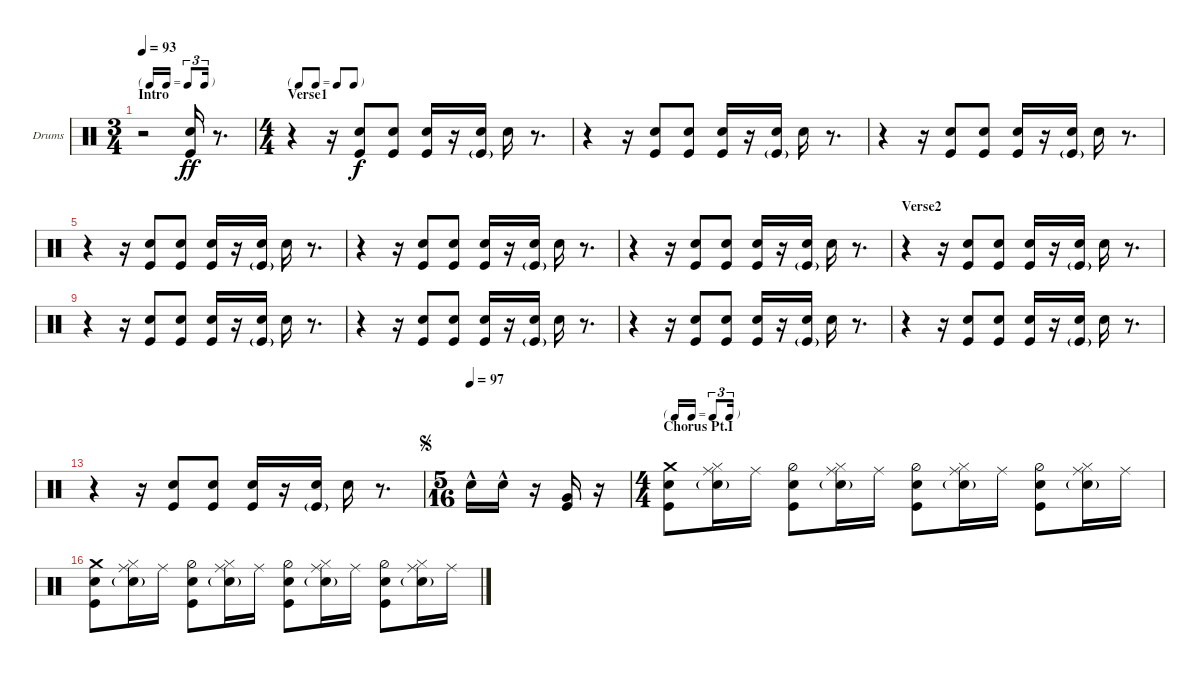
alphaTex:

\defaultSystemsLayout 4
\bracketExtendMode nobrackets
\firstSystemTrackNameOrientation horizontal
\otherSystemsTrackNameOrientation horizontal
\defaultBarNumberDisplay FirstOfSystem
\track ("Drums" "Drums") {instrument percussion}
\staff {score}
\articulation defaults
\ts (3 4)
\tf triplet16th
\section ("" "Intro")
\tempo 93
\clef neutral
\scale
0.425
\ks c
r.2{dy ff} ("Snare (hit) 2" "Kick (hit)").16 r.8{d} |
\ts (4 4)
\tf none
\section ("" "Verse1")
\scale
0.3375 r.4 r.16 ("Snare (hit) 2" "Kick (hit)").8{dy f} ("Snare (hit) 2" "Kick (hit)").8 ("Kick (hit)" "Snare (hit) 2").16 r.16 ("Snare (hit) 2" "Kick (hit)"{g}).16 "Snare (hit) 2".16 r.8{d} |
\scale
0.2375 r.4 r.16 ("Snare (hit) 2" "Kick (hit)").8 ("Snare (hit) 2" "Kick (hit)").8 ("Kick (hit)" "Snare (hit) 2").16 r.16 ("Kick (hit)"{g} "Snare (hit) 2").16 "Snare (hit) 2".16 r.8{d} |
\scale
0.333333 r.4 r.16 ("Snare (hit) 2" "Kick (hit)").8 ("Snare (hit) 2" "Kick (hit)").8 ("Kick (hit)" "Snare (hit) 2").16 r.16 ("Snare (hit) 2" "Kick (hit)"{g}).16 "Snare (hit) 2".16 r.8{d} |
\scale
0.333333 r.4 r.16 ("Snare (hit) 2" "Kick (hit)").8 ("Snare (hit) 2" "Kick (hit)").8 ("Kick (hit)" "Snare (hit) 2").16 r.16 ("Snare (hit) 2" "Kick (hit)"{g}).16 "Snare (hit) 2".16 r.8{d} |
\scale
0.333333 r.4 r.16 ("Snare (hit) 2" "Kick (hit)").8 ("Snare (hit) 2" "Kick (hit)").8 ("Kick (hit)" "Snare (hit) 2").16 r.16 ("Snare (hit) 2" "Kick (hit)"{g}).16 "Snare (hit) 2".16 r.8{d} |
\scale
0.333333 r.4 r.16 ("Snare (hit) 2" "Kick (hit)").8 ("Snare (hit) 2" "Kick (hit)").8 ("Kick (hit)" "Snare (hit) 2").16 r.16 ("Snare (hit) 2" "Kick (hit)"{g}).16 "Snare (hit) 2".16 r.8{d} |
\section ("" "Verse2")
\scale
0.333333 r.4 r.16 ("Snare (hit) 2" "Kick (hit)").8 ("Snare (hit) 2" "Kick (hit)").8 ("Kick (hit)" "Snare (hit) 2").16 r.16 ("Snare (hit) 2" "Kick (hit)"{g}).16 "Snare (hit) 2".16 r.8{d} |
\scale
0.333333 r.4 r.16 ("Snare (hit) 2" "Kick (hit)").8 ("Snare (hit) 2" "Kick (hit)").8 ("Kick (hit)" "Snare (hit) 2").16 r.16 ("Snare (hit) 2" "Kick (hit)"{g}).16 "Snare (hit) 2".16 r.8{d} |
\scale
0.333333 r.4 r.16 ("Snare (hit) 2" "Kick (hit)").8 ("Snare (hit) 2" "Kick (hit)").8 ("Kick (hit)" "Snare (hit) 2").16 r.16 ("Snare (hit) 2" "Kick (hit)"{g}).16 "Snare (hit) 2".16 r.8{d} |
\scale
0.333333 r.4 r.16 ("Snare (hit) 2" "Kick (hit)").8 ("Snare (hit) 2" "Kick (hit)").8 ("Kick (hit)" "Snare (hit) 2").16 r.16 ("Snare (hit) 2" "Kick (hit)"{g}).16 "Snare (hit) 2".16 r.8{d} |
\scale
0.333333 r.4 r.16 ("Snare (hit) 2" "Kick (hit)").8 ("Snare (hit) 2" "Kick (hit)").8 ("Kick (hit)" "Snare (hit) 2").16 r.16 ("Snare (hit) 2" "Kick (hit)"{g}).16 "Snare (hit) 2".16 r.8{d} |
\scale
0.260274 r.4 r.16 ("Snare (hit) 2" "Kick (hit)").8 ("Snare (hit) 2" "Kick (hit)").8 ("Kick (hit)" "Snare (hit) 2").16 r.16 ("Snare (hit) 2" "Kick (hit)"{g}).16 "Snare (hit) 2".16 r.8{d} |
\ts (5 16)
\jump segno
\tempo 97
\scale
0.369863 "Snare (hit) 2"{hac}.16 "Snare (hit) 2"{hac}.16{beam split} r.16{beam split} ("Kick (hit)" "Very Low Tom (hit)").16{beam merge} r.16{beam merge} |
\ts (4 4)
\tf triplet16th
\section ("" "Chorus Pt.I")
\scale
0.369863 ("Snare (hit) 2" "Kick (hit)" "Crash medium (hit)").8 ("Snare (hit) 2"{g} "Hi-Hat (closed)" "Ride (middle)").16 "Ride (middle)".16 ("Snare (hit) 2" "Kick (hit)" "Hi-Hat (half)").8 ("Hi-Hat (closed)" "Snare (hit) 2"{g} "Ride (middle)").16 "Ride (middle)".16 ("Kick (hit)" "Snare (hit) 2" "Hi-Hat (half)").8 ("Hi-Hat (closed)" "Snare (hit) 2"{g} "Ride (middle)").16 "Ride (middle)".16 ("Snare (hit) 2" "Kick (hit)" "Hi-Hat (half)").8 ("Hi-Hat (closed)" "Snare (hit) 2"{g} "Ride (middle)").16 "Ride (middle)".16 |
\scale
0.333333 ("Snare (hit) 2" "Kick (hit)" "Crash medium (hit)").8 ("Snare (hit) 2"{g} "Hi-Hat (closed)" "Ride (middle)").16 "Ride (middle)".16 ("Snare (hit) 2" "Kick (hit)" "Hi-Hat (half)").8 ("Hi-Hat (closed)" "Snare (hit) 2"{g} "Ride (middle)").16 "Ride (middle)".16 ("Kick (hit)" "Snare (hit) 2" "Hi-Hat (half)").8 ("Hi-Hat (closed)" "Snare (hit) 2"{g} "Ride (middle)").16 "Ride (middle)".16 ("Snare (hit) 2" "Kick (hit)" "Hi-Hat (half)").8 ("Hi-Hat (closed)" "Snare (hit) 2"{g} "Ride (middle)").16 "Ride (middle)".16
